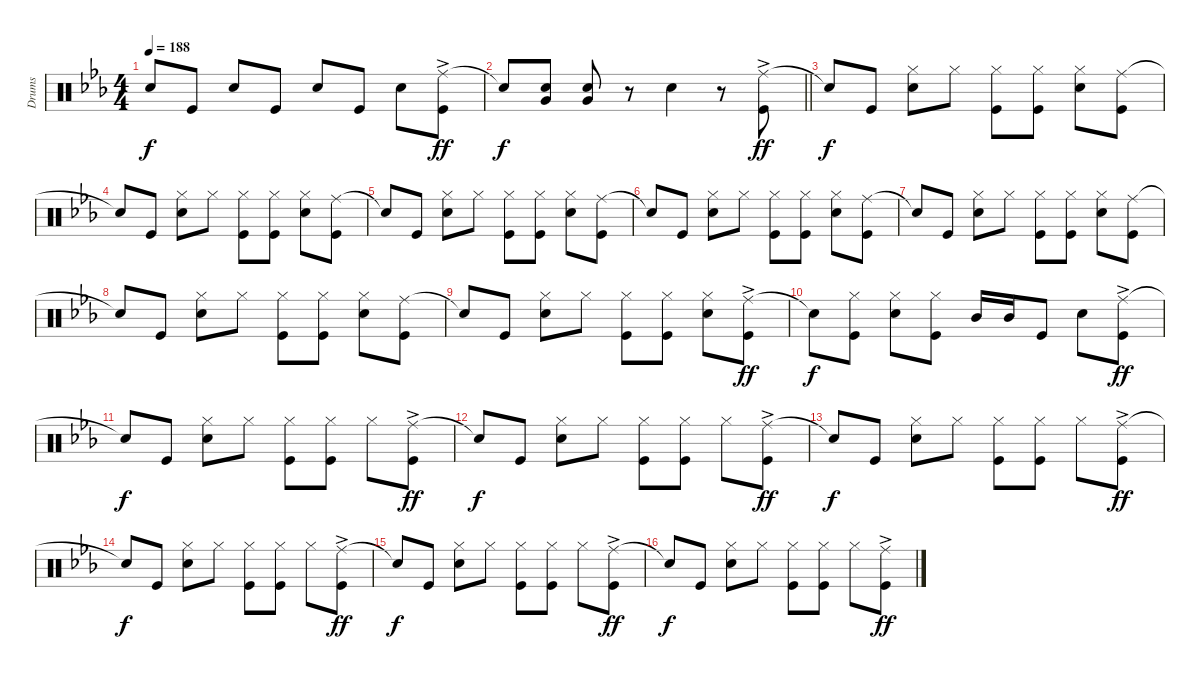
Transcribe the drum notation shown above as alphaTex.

\track ("Drums" "Drums") {instrument percussion}
\staff {score}
\articulation defaults
\ts (4 4)
\tempo 188
\clef neutral
\ks eb "Snare (hit)"{t}.8{dy f} "Kick (hit)".8 "Snare (hit) 2".8 "Kick (hit)".8 "Snare (hit) 2".8 "Kick (hit)".8 "Snare (hit) 2".8
("Ride (middle)"{ac} "Kick (hit)").8{dy ff} |
\barLineRight lightlight "Snare (hit)"{t}.8{dy f}
("Snare (hit) 2" "Very Low Tom (hit)").8 ("Snare (hit) 2" "Very Low Tom (hit)").8 r.8 "Snare (hit) 2".4 r.8 ("Ride (middle)"{ac} "Kick (hit)").8{dy ff} |
"Snare (hit)"{t}.8{dy f} "Kick (hit)".8 ("Hi-Hat (closed)" "Snare (hit) 2").8 "Hi-Hat (closed)".8 ("Hi-Hat (closed)" "Kick (hit)").8 ("Hi-Hat (closed)" "Kick (hit)").8 ("Hi-Hat (closed)" "Snare (hit) 2").8 ("Ride (middle)" "Kick (hit)").8 |
"Snare (hit)"{t}.8 "Kick (hit)".8 ("Hi-Hat (closed)" "Snare (hit) 2").8 "Hi-Hat (closed)".8 ("Hi-Hat (closed)" "Kick (hit)").8 ("Hi-Hat (closed)" "Kick (hit)").8 ("Hi-Hat (closed)" "Snare (hit) 2").8 ("Ride (middle)" "Kick (hit)").8 |
"Snare (hit)"{t}.8 "Kick (hit)".8 ("Hi-Hat (closed)" "Snare (hit) 2").8 "Hi-Hat (closed)".8 ("Hi-Hat (closed)" "Kick (hit)").8 ("Hi-Hat (closed)" "Kick (hit)").8 ("Hi-Hat (closed)" "Snare (hit) 2").8 ("Ride (middle)" "Kick (hit)").8 |
"Snare (hit)"{t}.8 "Kick (hit)".8 ("Hi-Hat (closed)" "Snare (hit) 2").8 "Hi-Hat (closed)".8 ("Hi-Hat (closed)" "Kick (hit)").8 ("Hi-Hat (closed)" "Kick (hit)").8 ("Hi-Hat (closed)" "Snare (hit) 2").8 ("Ride (middle)" "Kick (hit)").8 |
"Snare (hit)"{t}.8 "Kick (hit)".8 ("Hi-Hat (closed)" "Snare (hit) 2").8 "Hi-Hat (closed)".8 ("Hi-Hat (closed)" "Kick (hit)").8 ("Hi-Hat (closed)" "Kick (hit)").8 ("Hi-Hat (closed)" "Snare (hit) 2").8 ("Ride (middle)" "Kick (hit)").8 |
"Snare (hit)"{t}.8 "Kick (hit)".8 ("Hi-Hat (closed)" "Snare (hit) 2").8 "Hi-Hat (closed)".8 ("Hi-Hat (closed)" "Kick (hit)").8 ("Hi-Hat (closed)" "Kick (hit)").8 ("Hi-Hat (closed)" "Snare (hit) 2").8 ("Ride (middle)" "Kick (hit)").8 |
"Snare (hit)"{t}.8 "Kick (hit)".8 ("Hi-Hat (closed)" "Snare (hit) 2").8 "Hi-Hat (closed)".8 ("Hi-Hat (closed)" "Kick (hit)").8 ("Hi-Hat (closed)" "Kick (hit)").8 ("Hi-Hat (closed)" "Snare (hit) 2").8 ("Ride (middle)"{ac} "Kick (hit)").8{dy ff} |
"Snare (hit)"{t}.8{dy f} ("Hi-Hat (closed)" "Kick (hit)").8 ("Hi-Hat (closed)" "Snare (hit) 2").8 ("Hi-Hat (closed)" "Kick (hit)").8 "Mid Tom (hit)".16 "Mid Tom (hit)".16 "Kick (hit)".8 "Snare (hit) 2".8 ("Ride (middle)"{ac} "Kick (hit)").8{dy ff} |
"Snare (hit)"{t}.8{dy f} "Kick (hit)".8 ("Hi-Hat (closed)" "Snare (hit) 2").8 "Hi-Hat (closed)".8 ("Hi-Hat (closed)" "Kick (hit)").8 ("Hi-Hat (closed)" "Kick (hit)").8 "Hi-Hat (closed)".8 ("Ride (middle)"{ac} "Kick (hit)").8{dy ff} |
"Snare (hit)"{t}.8{dy f} "Kick (hit)".8 ("Hi-Hat (closed)" "Snare (hit) 2").8 "Hi-Hat (closed)".8 ("Hi-Hat (closed)" "Kick (hit)").8 ("Hi-Hat (closed)" "Kick (hit)").8 "Hi-Hat (closed)".8 ("Ride (middle)"{ac} "Kick (hit)").8{dy ff} |
"Snare (hit)"{t}.8{dy f} "Kick (hit)".8 ("Hi-Hat (closed)" "Snare (hit) 2").8 "Hi-Hat (closed)".8 ("Hi-Hat (closed)" "Kick (hit)").8 ("Hi-Hat (closed)" "Kick (hit)").8 "Hi-Hat (closed)".8 ("Ride (middle)"{ac} "Kick (hit)").8{dy ff} |
"Snare (hit)"{t}.8{dy f} "Kick (hit)".8 ("Hi-Hat (closed)" "Snare (hit) 2").8 "Hi-Hat (closed)".8 ("Hi-Hat (closed)" "Kick (hit)").8 ("Hi-Hat (closed)" "Kick (hit)").8 "Hi-Hat (closed)".8 ("Ride (middle)"{ac} "Kick (hit)").8{dy ff} |
"Snare (hit)"{t}.8{dy f} "Kick (hit)".8 ("Hi-Hat (closed)" "Snare (hit) 2").8 "Hi-Hat (closed)".8 ("Hi-Hat (closed)" "Kick (hit)").8 ("Hi-Hat (closed)" "Kick (hit)").8 "Hi-Hat (closed)".8 ("Ride (middle)"{ac} "Kick (hit)").8{dy ff} |
"Snare (hit)"{t}.8{dy f} "Kick (hit)".8 ("Hi-Hat (closed)" "Snare (hit) 2").8 "Hi-Hat (closed)".8 ("Hi-Hat (closed)" "Kick (hit)").8 ("Hi-Hat (closed)" "Kick (hit)").8 "Hi-Hat (closed)".8 ("Ride (middle)"{ac} "Kick (hit)").8{dy ff}
